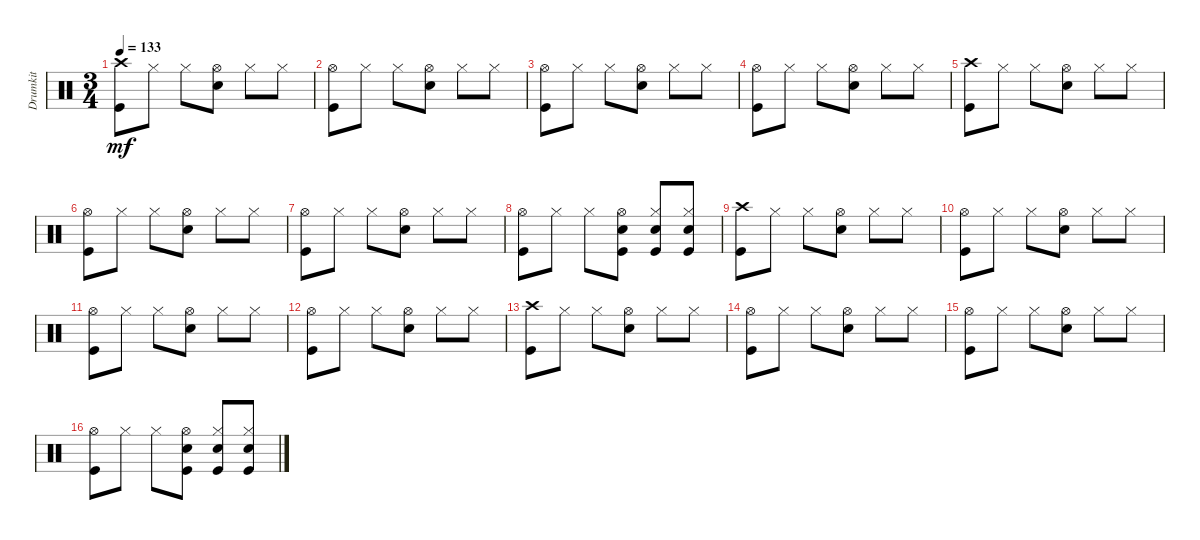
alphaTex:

\track ("Drumkit" "Drumkit") {instrument percussion}
\staff {score}
\articulation defaults
\ts (3 4)
\tempo 133
\clef neutral
\ks c
("Crash high (hit)" "Kick (hit)").8{dy mf} "Hi-Hat (closed)".8 "Hi-Hat (closed)".8 ("Hi-Hat (open)" "Snare (hit) 2").8 "Hi-Hat (closed)".8 "Hi-Hat (closed)".8 |
("Kick (hit)" "Hi-Hat (open)").8 "Hi-Hat (closed)".8 "Hi-Hat (closed)".8 ("Hi-Hat (open)" "Snare (hit) 2").8 "Hi-Hat (closed)".8 "Hi-Hat (closed)".8 |
("Kick (hit)" "Hi-Hat (open)").8 "Hi-Hat (closed)".8 "Hi-Hat (closed)".8 ("Hi-Hat (open)" "Snare (hit) 2").8 "Hi-Hat (closed)".8 "Hi-Hat (closed)".8 |
("Kick (hit)" "Hi-Hat (open)").8 "Hi-Hat (closed)".8 "Hi-Hat (closed)".8 ("Hi-Hat (open)" "Snare (hit) 2").8 "Hi-Hat (closed)".8 "Hi-Hat (closed)".8 |
("Crash high (hit)" "Kick (hit)").8 "Hi-Hat (closed)".8 "Hi-Hat (closed)".8 ("Hi-Hat (open)" "Snare (hit) 2").8 "Hi-Hat (closed)".8 "Hi-Hat (closed)".8 |
("Kick (hit)" "Hi-Hat (open)").8 "Hi-Hat (closed)".8 "Hi-Hat (closed)".8 ("Hi-Hat (open)" "Snare (hit) 2").8 "Hi-Hat (closed)".8 "Hi-Hat (closed)".8 |
("Kick (hit)" "Hi-Hat (open)").8 "Hi-Hat (closed)".8 "Hi-Hat (closed)".8 ("Hi-Hat (open)" "Snare (hit) 2").8 "Hi-Hat (closed)".8 "Hi-Hat (closed)".8 |
("Kick (hit)" "Hi-Hat (open)").8 "Hi-Hat (closed)".8 "Hi-Hat (closed)".8 ("Hi-Hat (open)" "Snare (hit) 2" "Kick (hit)").8 ("Hi-Hat (closed)" "Kick (hit)" "Snare (hit) 2").8 ("Hi-Hat (closed)" "Kick (hit)" "Snare (hit) 2").8 |
("Crash high (hit)" "Kick (hit)").8 "Hi-Hat (closed)".8 "Hi-Hat (closed)".8 ("Hi-Hat (open)" "Snare (hit) 2").8 "Hi-Hat (closed)".8 "Hi-Hat (closed)".8 |
("Kick (hit)" "Hi-Hat (open)").8 "Hi-Hat (closed)".8 "Hi-Hat (closed)".8 ("Hi-Hat (open)" "Snare (hit) 2").8 "Hi-Hat (closed)".8 "Hi-Hat (closed)".8 |
("Kick (hit)" "Hi-Hat (open)").8 "Hi-Hat (closed)".8 "Hi-Hat (closed)".8 ("Hi-Hat (open)" "Snare (hit) 2").8 "Hi-Hat (closed)".8 "Hi-Hat (closed)".8 |
("Kick (hit)" "Hi-Hat (open)").8 "Hi-Hat (closed)".8 "Hi-Hat (closed)".8 ("Hi-Hat (open)" "Snare (hit) 2").8 "Hi-Hat (closed)".8 "Hi-Hat (closed)".8 |
("Crash high (hit)" "Kick (hit)").8 "Hi-Hat (closed)".8 "Hi-Hat (closed)".8 ("Hi-Hat (open)" "Snare (hit) 2").8 "Hi-Hat (closed)".8 "Hi-Hat (closed)".8 |
("Kick (hit)" "Hi-Hat (open)").8 "Hi-Hat (closed)".8 "Hi-Hat (closed)".8 ("Hi-Hat (open)" "Snare (hit) 2").8 "Hi-Hat (closed)".8 "Hi-Hat (closed)".8 |
("Kick (hit)" "Hi-Hat (open)").8 "Hi-Hat (closed)".8 "Hi-Hat (closed)".8 ("Hi-Hat (open)" "Snare (hit) 2").8 "Hi-Hat (closed)".8 "Hi-Hat (closed)".8 |
("Kick (hit)" "Hi-Hat (open)").8 "Hi-Hat (closed)".8 "Hi-Hat (closed)".8 ("Hi-Hat (open)" "Snare (hit) 2" "Kick (hit)").8 ("Hi-Hat (closed)" "Kick (hit)" "Snare (hit) 2").8 ("Hi-Hat (closed)" "Kick (hit)" "Snare (hit) 2").8
